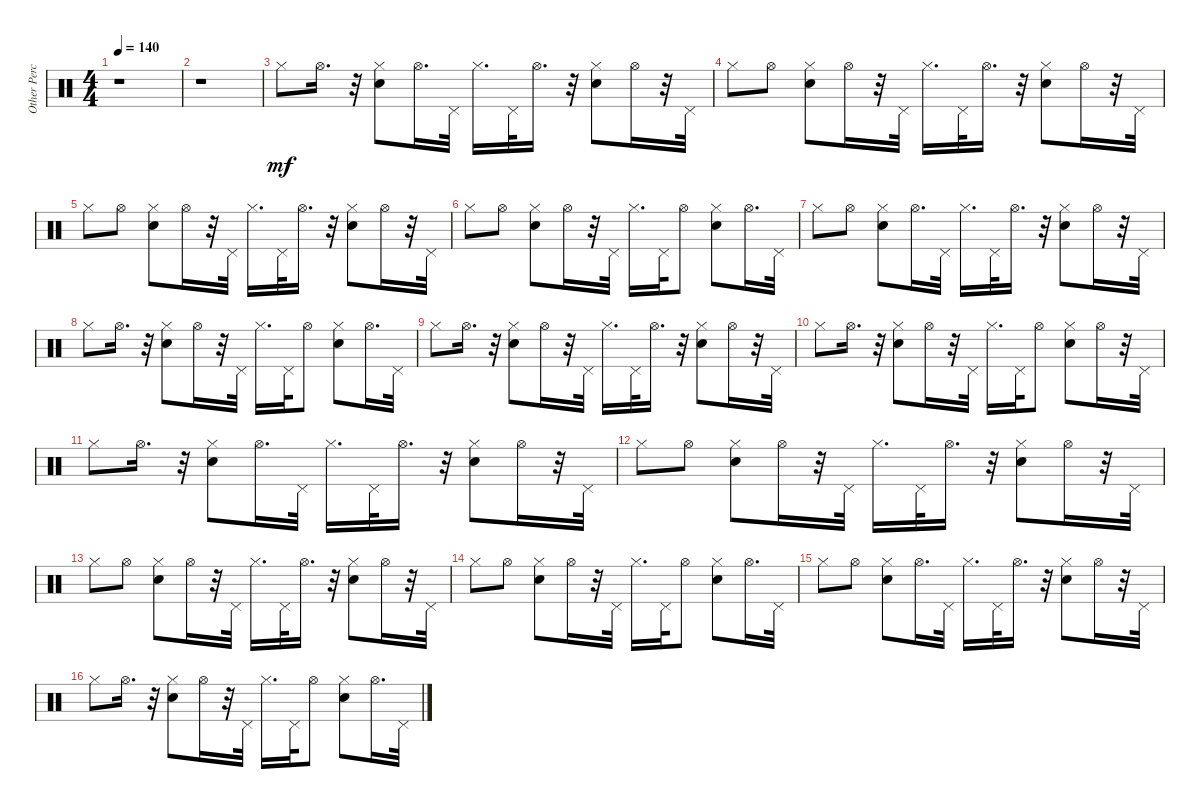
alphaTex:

\track ("Other Percussion" "Other Perc") {instrument percussion}
\staff {score}
\articulation defaults
\ts (4 4)
\tempo 140
\clef neutral
\ks c
r.1{dy mf} |
r.1 |
"Hi-Hat (closed)".8 "Hi-Hat (open)".16{d} r.32 ("Hand Clap (hit)" "Hi-Hat (closed)").8 "Hi-Hat (open)".16{d} "Pedal Hi-Hat (hit)".32 "Hi-Hat (closed)".16{d} "Pedal Hi-Hat (hit)".32 "Hi-Hat (open)".16{d} r.32 ("Hand Clap (hit)" "Hi-Hat (closed)").8 "Hi-Hat (open)".16 r.32 "Pedal Hi-Hat (hit)".32 |
"Hi-Hat (closed)".8 "Hi-Hat (open)".8 ("Hand Clap (hit)" "Hi-Hat (closed)").8 "Hi-Hat (open)".16 r.32 "Pedal Hi-Hat (hit)".32 "Hi-Hat (closed)".16{d} "Pedal Hi-Hat (hit)".32 "Hi-Hat (open)".16{d} r.32 ("Hand Clap (hit)" "Hi-Hat (closed)").8 "Hi-Hat (open)".16 r.32 "Pedal Hi-Hat (hit)".32 |
"Hi-Hat (closed)".8 "Hi-Hat (open)".8 ("Hand Clap (hit)" "Hi-Hat (closed)").8 "Hi-Hat (open)".16 r.32 "Pedal Hi-Hat (hit)".32 "Hi-Hat (closed)".16{d} "Pedal Hi-Hat (hit)".32 "Hi-Hat (open)".16{d} r.32 ("Hand Clap (hit)" "Hi-Hat (closed)").8 "Hi-Hat (open)".16 r.32 "Pedal Hi-Hat (hit)".32 |
"Hi-Hat (closed)".8 "Hi-Hat (open)".8 ("Hand Clap (hit)" "Hi-Hat (closed)").8 "Hi-Hat (open)".16 r.32 "Pedal Hi-Hat (hit)".32 "Hi-Hat (closed)".16{d} "Pedal Hi-Hat (hit)".32 "Hi-Hat (open)".8 ("Hand Clap (hit)" "Hi-Hat (closed)").8 "Hi-Hat (open)".16{d} "Pedal Hi-Hat (hit)".32 |
"Hi-Hat (closed)".8 "Hi-Hat (open)".8 ("Hand Clap (hit)" "Hi-Hat (closed)").8 "Hi-Hat (open)".16{d} "Pedal Hi-Hat (hit)".32 "Hi-Hat (closed)".16{d} "Pedal Hi-Hat (hit)".32 "Hi-Hat (open)".16{d} r.32 ("Hand Clap (hit)" "Hi-Hat (closed)").8 "Hi-Hat (open)".16 r.32 "Pedal Hi-Hat (hit)".32 |
"Hi-Hat (closed)".8 "Hi-Hat (open)".16{d} r.32 ("Hand Clap (hit)" "Hi-Hat (closed)").8 "Hi-Hat (open)".16 r.32 "Pedal Hi-Hat (hit)".32 "Hi-Hat (closed)".16{d} "Pedal Hi-Hat (hit)".32 "Hi-Hat (open)".8 ("Hand Clap (hit)" "Hi-Hat (closed)").8 "Hi-Hat (open)".16{d} "Pedal Hi-Hat (hit)".32 |
"Hi-Hat (closed)".8 "Hi-Hat (open)".16{d} r.32 ("Hand Clap (hit)" "Hi-Hat (closed)").8 "Hi-Hat (open)".16 r.32 "Pedal Hi-Hat (hit)".32 "Hi-Hat (closed)".16{d} "Pedal Hi-Hat (hit)".32 "Hi-Hat (open)".16{d} r.32 ("Hand Clap (hit)" "Hi-Hat (closed)").8 "Hi-Hat (open)".16 r.32 "Pedal Hi-Hat (hit)".32 |
"Hi-Hat (closed)".8 "Hi-Hat (open)".16{d} r.32 ("Hand Clap (hit)" "Hi-Hat (closed)").8 "Hi-Hat (open)".16 r.32 "Pedal Hi-Hat (hit)".32 "Hi-Hat (closed)".16{d} "Pedal Hi-Hat (hit)".32 "Hi-Hat (open)".8 ("Hand Clap (hit)" "Hi-Hat (closed)").8 "Hi-Hat (open)".16 r.32 "Pedal Hi-Hat (hit)".32 |
"Hi-Hat (closed)".8 "Hi-Hat (open)".16{d} r.32 ("Hand Clap (hit)" "Hi-Hat (closed)").8 "Hi-Hat (open)".16{d} "Pedal Hi-Hat (hit)".32 "Hi-Hat (closed)".16{d} "Pedal Hi-Hat (hit)".32 "Hi-Hat (open)".16{d} r.32 ("Hand Clap (hit)" "Hi-Hat (closed)").8 "Hi-Hat (open)".16 r.32 "Pedal Hi-Hat (hit)".32 |
"Hi-Hat (closed)".8 "Hi-Hat (open)".8 ("Hand Clap (hit)" "Hi-Hat (closed)").8 "Hi-Hat (open)".16 r.32 "Pedal Hi-Hat (hit)".32 "Hi-Hat (closed)".16{d} "Pedal Hi-Hat (hit)".32 "Hi-Hat (open)".16{d} r.32 ("Hand Clap (hit)" "Hi-Hat (closed)").8 "Hi-Hat (open)".16 r.32 "Pedal Hi-Hat (hit)".32 |
"Hi-Hat (closed)".8 "Hi-Hat (open)".8 ("Hand Clap (hit)" "Hi-Hat (closed)").8 "Hi-Hat (open)".16 r.32 "Pedal Hi-Hat (hit)".32 "Hi-Hat (closed)".16{d} "Pedal Hi-Hat (hit)".32 "Hi-Hat (open)".16{d} r.32 ("Hand Clap (hit)" "Hi-Hat (closed)").8 "Hi-Hat (open)".16 r.32 "Pedal Hi-Hat (hit)".32 |
"Hi-Hat (closed)".8 "Hi-Hat (open)".8 ("Hand Clap (hit)" "Hi-Hat (closed)").8 "Hi-Hat (open)".16 r.32 "Pedal Hi-Hat (hit)".32 "Hi-Hat (closed)".16{d} "Pedal Hi-Hat (hit)".32 "Hi-Hat (open)".8 ("Hand Clap (hit)" "Hi-Hat (closed)").8 "Hi-Hat (open)".16{d} "Pedal Hi-Hat (hit)".32 |
"Hi-Hat (closed)".8 "Hi-Hat (open)".8 ("Hand Clap (hit)" "Hi-Hat (closed)").8 "Hi-Hat (open)".16{d} "Pedal Hi-Hat (hit)".32 "Hi-Hat (closed)".16{d} "Pedal Hi-Hat (hit)".32 "Hi-Hat (open)".16{d} r.32 ("Hand Clap (hit)" "Hi-Hat (closed)").8 "Hi-Hat (open)".16 r.32 "Pedal Hi-Hat (hit)".32 |
"Hi-Hat (closed)".8 "Hi-Hat (open)".16{d} r.32 ("Hand Clap (hit)" "Hi-Hat (closed)").8 "Hi-Hat (open)".16 r.32 "Pedal Hi-Hat (hit)".32 "Hi-Hat (closed)".16{d} "Pedal Hi-Hat (hit)".32 "Hi-Hat (open)".8 ("Hand Clap (hit)" "Hi-Hat (closed)").8 "Hi-Hat (open)".16{d} "Pedal Hi-Hat (hit)".32
